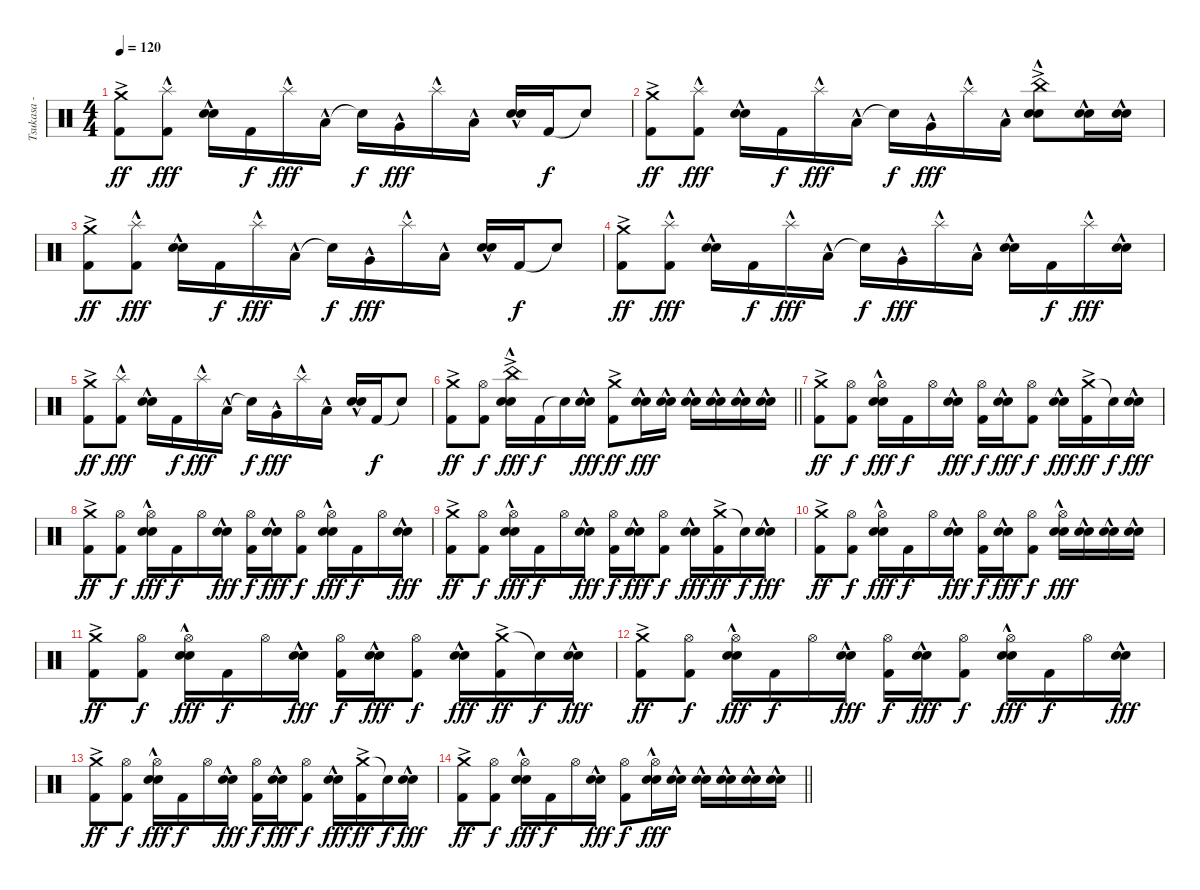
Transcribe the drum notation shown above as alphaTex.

\track ("Tsukasa - Drums" "Tsukasa - ") {instrument percussion}
\staff {score}
\articulation defaults
\ts (4 4)
\tempo 120
\clef neutral
\ks c
("Crash medium (hit)"{ac} "Kick (hit) 2").8{dy ff} ("Splash (hit)"{hac} "Kick (hit) 2").8{dy fff} ("Electric Snare (hit)"{hac} "Snare (hit) 2"{hac}).16 "Kick (hit) 2".16{dy f} "Splash (hit)"{hac}.16{dy fff} "Low Tom (hit)"{hac}.16 "Snare (hit)"{t}.16{dy f} "Very Low Tom (hit)"{hac}.16{dy fff} "Splash (hit)"{hac}.16 "Low Floor Tom (hit)"{hac}.16 ("Electric Snare (hit)"{hac} "Snare (hit) 2"{hac}).16 "Kick (hit) 2".16{dy f} "Snare (hit)"{t}.8 |
("Crash medium (hit)"{ac} "Kick (hit) 2").8{dy ff} ("Splash (hit)"{hac} "Kick (hit) 2").8{dy fff} ("Electric Snare (hit)"{hac} "Snare (hit) 2"{hac}).16 "Kick (hit) 2".16{dy f} "Splash (hit)"{hac}.16{dy fff} "Low Tom (hit)"{hac}.16 "Snare (hit)"{t}.16{dy f} "Very Low Tom (hit)"{hac}.16{dy fff} "Splash (hit)"{hac}.16 "Low Floor Tom (hit)"{hac}.16 ("China (hit)"{ac} "Electric Snare (hit)"{hac} "Snare (hit) 2"{hac}).8 ("Electric Snare (hit)"{hac} "Snare (hit) 2"{hac}).16 ("Electric Snare (hit)"{hac} "Snare (hit) 2"{hac}).16 |
("Crash medium (hit)"{ac} "Kick (hit) 2").8{dy ff} ("Splash (hit)"{hac} "Kick (hit) 2").8{dy fff} ("Electric Snare (hit)"{hac} "Snare (hit) 2"{hac}).16 "Kick (hit) 2".16{dy f} "Splash (hit)"{hac}.16{dy fff} "Low Tom (hit)"{hac}.16 "Snare (hit)"{t}.16{dy f} "Very Low Tom (hit)"{hac}.16{dy fff} "Splash (hit)"{hac}.16 "Low Floor Tom (hit)"{hac}.16 ("Electric Snare (hit)"{hac} "Snare (hit) 2"{hac}).16 "Kick (hit) 2".16{dy f} "Snare (hit)"{t}.8 |
("Crash medium (hit)"{ac} "Kick (hit) 2").8{dy ff} ("Splash (hit)"{hac} "Kick (hit) 2").8{dy fff} ("Electric Snare (hit)"{hac} "Snare (hit) 2"{hac}).16 "Kick (hit) 2".16{dy f} "Splash (hit)"{hac}.16{dy fff} "Low Tom (hit)"{hac}.16 "Snare (hit)"{t}.16{dy f} "Very Low Tom (hit)"{hac}.16{dy fff} "Splash (hit)"{hac}.16 "Low Floor Tom (hit)"{hac}.16 ("Electric Snare (hit)"{hac} "Snare (hit) 2"{hac}).16 "Kick (hit) 2".16{dy f} "Splash (hit)"{hac}.16{dy fff} ("Electric Snare (hit)"{hac} "Snare (hit) 2"{hac}).16 |
("Crash medium (hit)"{ac} "Kick (hit) 2").8{dy ff} ("Splash (hit)"{hac} "Kick (hit) 2").8{dy fff} ("Electric Snare (hit)"{hac} "Snare (hit) 2"{hac}).16 "Kick (hit) 2".16{dy f} "Splash (hit)"{hac}.16{dy fff} "Low Tom (hit)"{hac}.16 "Snare (hit)"{t}.16{dy f} "Very Low Tom (hit)"{hac}.16{dy fff} "Splash (hit)"{hac}.16 "Low Floor Tom (hit)"{hac}.16 ("Electric Snare (hit)"{hac} "Snare (hit) 2"{hac}).16 "Kick (hit) 2".16{dy f} "Snare (hit)"{t}.8 |
\barLineRight lightlight
("Crash medium (hit)"{ac} "Kick (hit) 2").8{dy ff} ("Hi-Hat (open)" "Kick (hit) 2").8{dy f} ("China (hit)"{ac} "Electric Snare (hit)"{hac} "Snare (hit) 2"{hac}).16{dy fff} "Kick (hit) 2".16{dy f} "Snare (hit)"{t}.16 ("Electric Snare (hit)"{hac} "Snare (hit) 2"{hac}).16{dy fff} ("Crash medium (hit)"{ac} "Kick (hit) 2").8{dy ff} ("Electric Snare (hit)"{hac} "Snare (hit) 2"{hac}).16{dy fff} ("Electric Snare (hit)"{hac} "Snare (hit) 2"{hac}).16 ("Electric Snare (hit)"{hac} "Snare (hit) 2"{hac}).16 ("Electric Snare (hit)"{hac} "Snare (hit) 2"{hac}).16 ("Electric Snare (hit)"{hac} "Snare (hit) 2"{hac}).16 ("Electric Snare (hit)"{hac} "Snare (hit) 2"{hac}).16 |
\section ("" "")
("Crash medium (hit)"{ac} "Kick (hit) 2").8{dy ff} ("Hi-Hat (open)" "Kick (hit) 2").8{dy f} ("Hi-Hat (open)" "Electric Snare (hit)"{hac} "Snare (hit) 2"{hac}).16{dy fff} "Kick (hit) 2".16{dy f} "Hi-Hat (open)".16 ("Electric Snare (hit)"{hac} "Snare (hit) 2"{hac}).16{dy fff} ("Hi-Hat (open)" "Kick (hit) 2").16{dy f} ("Electric Snare (hit)"{hac} "Snare (hit) 2"{hac}).16{dy fff} ("Hi-Hat (open)" "Kick (hit) 2").8{dy f} ("Electric Snare (hit)"{hac} "Snare (hit) 2"{hac}).16{dy fff} ("Crash medium (hit)"{ac} "Kick (hit) 2").16{dy ff} "Snare (hit)"{t}.16{dy f} ("Electric Snare (hit)"{hac} "Snare (hit) 2"{hac}).16{dy fff} |
("Crash medium (hit)"{ac} "Kick (hit) 2").8{dy ff} ("Hi-Hat (open)" "Kick (hit) 2").8{dy f} ("Hi-Hat (open)" "Electric Snare (hit)"{hac} "Snare (hit) 2"{hac}).16{dy fff} "Kick (hit) 2".16{dy f} "Hi-Hat (open)".16 ("Electric Snare (hit)"{hac} "Snare (hit) 2"{hac}).16{dy fff} ("Hi-Hat (open)" "Kick (hit) 2").16{dy f} ("Electric Snare (hit)"{hac} "Snare (hit) 2"{hac}).16{dy fff} ("Hi-Hat (open)" "Kick (hit) 2").8{dy f} ("Hi-Hat (open)" "Electric Snare (hit)"{hac} "Snare (hit) 2"{hac}).16{dy fff} "Kick (hit) 2".16{dy f} "Hi-Hat (open)".16 ("Electric Snare (hit)"{hac} "Snare (hit) 2"{hac}).16{dy fff} |
("Crash medium (hit)"{ac} "Kick (hit) 2").8{dy ff} ("Hi-Hat (open)" "Kick (hit) 2").8{dy f} ("Hi-Hat (open)" "Electric Snare (hit)"{hac} "Snare (hit) 2"{hac}).16{dy fff} "Kick (hit) 2".16{dy f} "Hi-Hat (open)".16 ("Electric Snare (hit)"{hac} "Snare (hit) 2"{hac}).16{dy fff} ("Hi-Hat (open)" "Kick (hit) 2").16{dy f} ("Electric Snare (hit)"{hac} "Snare (hit) 2"{hac}).16{dy fff} ("Hi-Hat (open)" "Kick (hit) 2").8{dy f} ("Electric Snare (hit)"{hac} "Snare (hit) 2"{hac}).16{dy fff} ("Crash medium (hit)"{ac} "Kick (hit) 2").16{dy ff} "Snare (hit)"{t}.16{dy f} ("Electric Snare (hit)"{hac} "Snare (hit) 2"{hac}).16{dy fff} |
("Crash medium (hit)"{ac} "Kick (hit) 2").8{dy ff} ("Hi-Hat (open)" "Kick (hit) 2").8{dy f} ("Hi-Hat (open)" "Electric Snare (hit)"{hac} "Snare (hit) 2"{hac}).16{dy fff} "Kick (hit) 2".16{dy f} "Hi-Hat (open)".16 ("Electric Snare (hit)"{hac} "Snare (hit) 2"{hac}).16{dy fff} ("Hi-Hat (open)" "Kick (hit) 2").16{dy f} ("Electric Snare (hit)"{hac} "Snare (hit) 2"{hac}).16{dy fff} ("Hi-Hat (open)" "Kick (hit) 2").8{dy f} ("Hi-Hat (open)" "Electric Snare (hit)"{hac} "Snare (hit) 2"{hac}).16{dy fff} ("Electric Snare (hit)"{hac} "Snare (hit) 2"{hac}).16 ("Electric Snare (hit)"{hac} "Snare (hit) 2"{hac}).16 ("Electric Snare (hit)"{hac} "Snare (hit) 2"{hac}).16 |
("Crash medium (hit)"{ac} "Kick (hit) 2").8{dy ff} ("Hi-Hat (open)" "Kick (hit) 2").8{dy f} ("Hi-Hat (open)" "Electric Snare (hit)"{hac} "Snare (hit) 2"{hac}).16{dy fff} "Kick (hit) 2".16{dy f} "Hi-Hat (open)".16 ("Electric Snare (hit)"{hac} "Snare (hit) 2"{hac}).16{dy fff} ("Hi-Hat (open)" "Kick (hit) 2").16{dy f} ("Electric Snare (hit)"{hac} "Snare (hit) 2"{hac}).16{dy fff} ("Hi-Hat (open)" "Kick (hit) 2").8{dy f} ("Electric Snare (hit)"{hac} "Snare (hit) 2"{hac}).16{dy fff} ("Crash medium (hit)"{ac} "Kick (hit) 2").16{dy ff} "Snare (hit)"{t}.16{dy f} ("Electric Snare (hit)"{hac} "Snare (hit) 2"{hac}).16{dy fff} |
("Crash medium (hit)"{ac} "Kick (hit) 2").8{dy ff} ("Hi-Hat (open)" "Kick (hit) 2").8{dy f} ("Hi-Hat (open)" "Electric Snare (hit)"{hac} "Snare (hit) 2"{hac}).16{dy fff} "Kick (hit) 2".16{dy f} "Hi-Hat (open)".16 ("Electric Snare (hit)"{hac} "Snare (hit) 2"{hac}).16{dy fff} ("Hi-Hat (open)" "Kick (hit) 2").16{dy f} ("Electric Snare (hit)"{hac} "Snare (hit) 2"{hac}).16{dy fff} ("Hi-Hat (open)" "Kick (hit) 2").8{dy f} ("Hi-Hat (open)" "Electric Snare (hit)"{hac} "Snare (hit) 2"{hac}).16{dy fff} "Kick (hit) 2".16{dy f} "Hi-Hat (open)".16 ("Electric Snare (hit)"{hac} "Snare (hit) 2"{hac}).16{dy fff} |
("Crash medium (hit)"{ac} "Kick (hit) 2").8{dy ff} ("Hi-Hat (open)" "Kick (hit) 2").8{dy f} ("Hi-Hat (open)" "Electric Snare (hit)"{hac} "Snare (hit) 2"{hac}).16{dy fff} "Kick (hit) 2".16{dy f} "Hi-Hat (open)".16 ("Electric Snare (hit)"{hac} "Snare (hit) 2"{hac}).16{dy fff} ("Hi-Hat (open)" "Kick (hit) 2").16{dy f} ("Electric Snare (hit)"{hac} "Snare (hit) 2"{hac}).16{dy fff} ("Hi-Hat (open)" "Kick (hit) 2").8{dy f} ("Electric Snare (hit)"{hac} "Snare (hit) 2"{hac}).16{dy fff} ("Crash medium (hit)"{ac} "Kick (hit) 2").16{dy ff} "Snare (hit)"{t}.16{dy f} ("Electric Snare (hit)"{hac} "Snare (hit) 2"{hac}).16{dy fff} |
\barLineRight lightlight
("Crash medium (hit)"{ac} "Kick (hit) 2").8{dy ff} ("Hi-Hat (open)" "Kick (hit) 2").8{dy f} ("Hi-Hat (open)" "Electric Snare (hit)"{hac} "Snare (hit) 2"{hac}).16{dy fff} "Kick (hit) 2".16{dy f} "Hi-Hat (open)".16 ("Electric Snare (hit)"{hac} "Snare (hit) 2"{hac}).16{dy fff} ("Hi-Hat (open)" "Kick (hit) 2").8{dy f} ("Hi-Hat (open)" "Electric Snare (hit)"{hac} "Snare (hit) 2"{hac}).16{dy fff} ("Electric Snare (hit)"{hac} "Snare (hit) 2"{hac}).16 ("Electric Snare (hit)"{hac} "Snare (hit) 2"{hac}).16 ("Electric Snare (hit)"{hac} "Snare (hit) 2"{hac}).16 ("Electric Snare (hit)"{hac} "Snare (hit) 2"{hac}).16 ("Electric Snare (hit)"{hac} "Snare (hit) 2"{hac}).16
